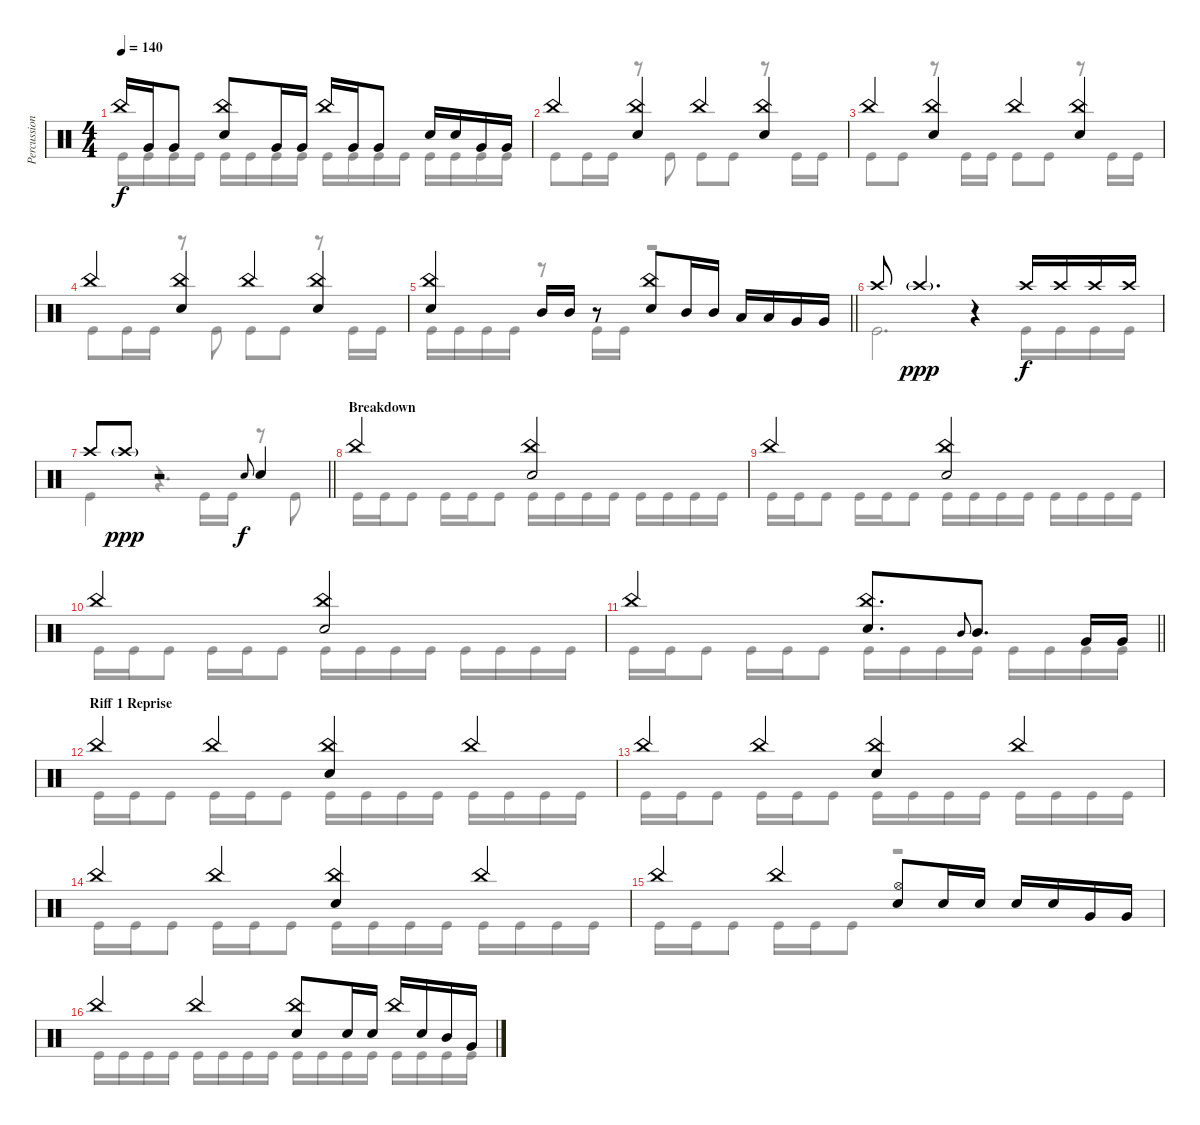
\track ("Percussion" "Percussion") {instrument percussion}
\staff {score}
\articulation defaults
\voice
\ts (4 4)
\tempo 140
\clef neutral
\ks c "China (hit)".16{dy f} "Very Low Tom (hit)".16 "Very Low Tom (hit)".8
("China (hit)" "Electric Snare (hit)").8 "Very Low Tom (hit)".16 "Very Low Tom (hit)".16 "China (hit)".16 "Very Low Tom (hit)".16 "Very Low Tom (hit)".8 "Electric Snare (hit)".16 "Electric Snare (hit)".16 "Very Low Tom (hit)".16 "Very Low Tom (hit)".16 |
"China (hit)".4 ("China (hit)" "Electric Snare (hit)").4 "China (hit)".4 ("China (hit)" "Electric Snare (hit)").4 |
"China (hit)".4 ("China (hit)" "Electric Snare (hit)").4 "China (hit)".4 ("China (hit)" "Electric Snare (hit)").4 |
"China (hit)".4 ("China (hit)" "Electric Snare (hit)").4 "China (hit)".4 ("China (hit)" "Electric Snare (hit)").4 |
\barLineRight lightlight
("China (hit)" "Electric Snare (hit)").4 "Mid Tom (hit)".16 "Mid Tom (hit)".16 r.8 ("China (hit)" "Electric Snare (hit)").8 "Mid Tom (hit)".16 "Mid Tom (hit)".16 "Low Tom (hit)".16 "Low Tom (hit)".16 "Very Low Tom (hit)".16 "Very Low Tom (hit)".16 |
\section ("" "")
"Crash high (hit)".8 "Crash high (hit)"{g}.4{d dy ppp} r.4 "Crash high (hit)".16{dy f} "Crash high (hit)".16 "Crash high (hit)".16 "Crash high (hit)".16 |
\barLineRight lightlight "Crash high (hit)".8 "Crash high (hit)"{g}.8{dy ppp}
r.2 "Electric Snare (hit)".8{gr onbeat dy f} "Electric Snare (hit)".4 |
\section ("" "Breakdown")
"China (hit)".2 ("China (hit)" "Electric Snare (hit)").2 |
"China (hit)".2 ("China (hit)" "Electric Snare (hit)").2 |
"China (hit)".2 ("China (hit)" "Electric Snare (hit)").2 |
\barLineRight lightlight "China (hit)".2
("China (hit)" "Electric Snare (hit)").8{d} "Mid Tom (hit)".8{gr onbeat} "Mid Tom (hit)".8{d} "Very Low Tom (hit)".16 "Very Low Tom (hit)".16 |
\section ("" "Riff 1 Reprise")
"China (hit)".4 "China (hit)".4 ("China (hit)" "Electric Snare (hit)").4 "China (hit)".4 |
"China (hit)".4 "China (hit)".4 ("China (hit)" "Electric Snare (hit)").4 "China (hit)".4 |
"China (hit)".4 "China (hit)".4 ("China (hit)" "Electric Snare (hit)").4 "China (hit)".4 |
"China (hit)".4 "China (hit)".4 ("Hi-Hat (open)" "Electric Snare (hit)").8 "Electric Snare (hit)".16 "Electric Snare (hit)".16 "Electric Snare (hit)".16 "Electric Snare (hit)".16 "Very Low Tom (hit)".16 "Very Low Tom (hit)".16 |
"China (hit)".4 "China (hit)".4 ("China (hit)" "Electric Snare (hit)").8 "Electric Snare (hit)".16 "Electric Snare (hit)".16 "China (hit)".16 "Electric Snare (hit)".16 "Mid Tom (hit)".16 "Very Low Tom (hit)".16
\voice
\clef neutral
\ottava regular
\simile none
\ks c "Kick (hit)".16{dy f} "Kick (hit)".16 "Kick (hit)".16 "Kick (hit)".16 "Kick (hit)".16 "Kick (hit)".16 "Kick (hit)".16 "Kick (hit)".16 "Kick (hit)".16 "Kick (hit)".16 "Kick (hit)".16 "Kick (hit)".16 "Kick (hit)".16 "Kick (hit)".16 "Kick (hit)".16 "Kick (hit)".16
|
"Kick (hit)".8 "Kick (hit)".16 "Kick (hit)".16 r.8 "Kick (hit)".8 "Kick (hit)".8 "Kick (hit)".8 r.8 "Kick (hit)".16 "Kick (hit)".16 |
"Kick (hit)".8 "Kick (hit)".8 r.8 "Kick (hit)".16 "Kick (hit)".16 "Kick (hit)".8 "Kick (hit)".8 r.8 "Kick (hit)".16 "Kick (hit)".16 |
"Kick (hit)".8 "Kick (hit)".16 "Kick (hit)".16 r.8 "Kick (hit)".8 "Kick (hit)".8 "Kick (hit)".8 r.8 "Kick (hit)".16 "Kick (hit)".16 |
\barLineRight lightlight "Kick (hit)".16 "Kick (hit)".16 "Kick (hit)".16 "Kick (hit)".16
r.8 "Kick (hit)".16 "Kick (hit)".16 r.2 |
"Kick (hit)".2{d} "Kick (hit)".16 "Kick (hit)".16 "Kick (hit)".16 "Kick (hit)".16 |
\barLineRight lightlight "Kick (hit)".4
r.4{d} "Kick (hit)".16 "Kick (hit)".16 r.8 "Kick (hit)".8 |
"Kick (hit)".16 "Kick (hit)".16 "Kick (hit)".8 "Kick (hit)".16 "Kick (hit)".16 "Kick (hit)".8 "Kick (hit)".16 "Kick (hit)".16 "Kick (hit)".16 "Kick (hit)".16 "Kick (hit)".16 "Kick (hit)".16 "Kick (hit)".16 "Kick (hit)".16 |
"Kick (hit)".16 "Kick (hit)".16 "Kick (hit)".8 "Kick (hit)".16 "Kick (hit)".16 "Kick (hit)".8 "Kick (hit)".16 "Kick (hit)".16 "Kick (hit)".16 "Kick (hit)".16 "Kick (hit)".16 "Kick (hit)".16 "Kick (hit)".16 "Kick (hit)".16 |
"Kick (hit)".16 "Kick (hit)".16 "Kick (hit)".8 "Kick (hit)".16 "Kick (hit)".16 "Kick (hit)".8 "Kick (hit)".16 "Kick (hit)".16 "Kick (hit)".16 "Kick (hit)".16 "Kick (hit)".16 "Kick (hit)".16 "Kick (hit)".16 "Kick (hit)".16 |
\barLineRight lightlight "Kick (hit)".16 "Kick (hit)".16 "Kick (hit)".8 "Kick (hit)".16 "Kick (hit)".16 "Kick (hit)".8 "Kick (hit)".16 "Kick (hit)".16 "Kick (hit)".16 "Kick (hit)".16 "Kick (hit)".16 "Kick (hit)".16 "Kick (hit)".16 "Kick (hit)".16
|
"Kick (hit)".16 "Kick (hit)".16 "Kick (hit)".8 "Kick (hit)".16 "Kick (hit)".16 "Kick (hit)".8 "Kick (hit)".16 "Kick (hit)".16 "Kick (hit)".16 "Kick (hit)".16 "Kick (hit)".16 "Kick (hit)".16 "Kick (hit)".16 "Kick (hit)".16 |
"Kick (hit)".16 "Kick (hit)".16 "Kick (hit)".8 "Kick (hit)".16 "Kick (hit)".16 "Kick (hit)".8 "Kick (hit)".16 "Kick (hit)".16 "Kick (hit)".16 "Kick (hit)".16 "Kick (hit)".16 "Kick (hit)".16 "Kick (hit)".16 "Kick (hit)".16 |
"Kick (hit)".16 "Kick (hit)".16 "Kick (hit)".8 "Kick (hit)".16 "Kick (hit)".16 "Kick (hit)".8 "Kick (hit)".16 "Kick (hit)".16 "Kick (hit)".16 "Kick (hit)".16 "Kick (hit)".16 "Kick (hit)".16 "Kick (hit)".16 "Kick (hit)".16 |
"Kick (hit)".16 "Kick (hit)".16 "Kick (hit)".8 "Kick (hit)".16 "Kick (hit)".16 "Kick (hit)".8 r.2 |
"Kick (hit)".16 "Kick (hit)".16 "Kick (hit)".16 "Kick (hit)".16 "Kick (hit)".16 "Kick (hit)".16 "Kick (hit)".16 "Kick (hit)".16 "Kick (hit)".16 "Kick (hit)".16 "Kick (hit)".16 "Kick (hit)".16 "Kick (hit)".16 "Kick (hit)".16 "Kick (hit)".16 "Kick (hit)".16
